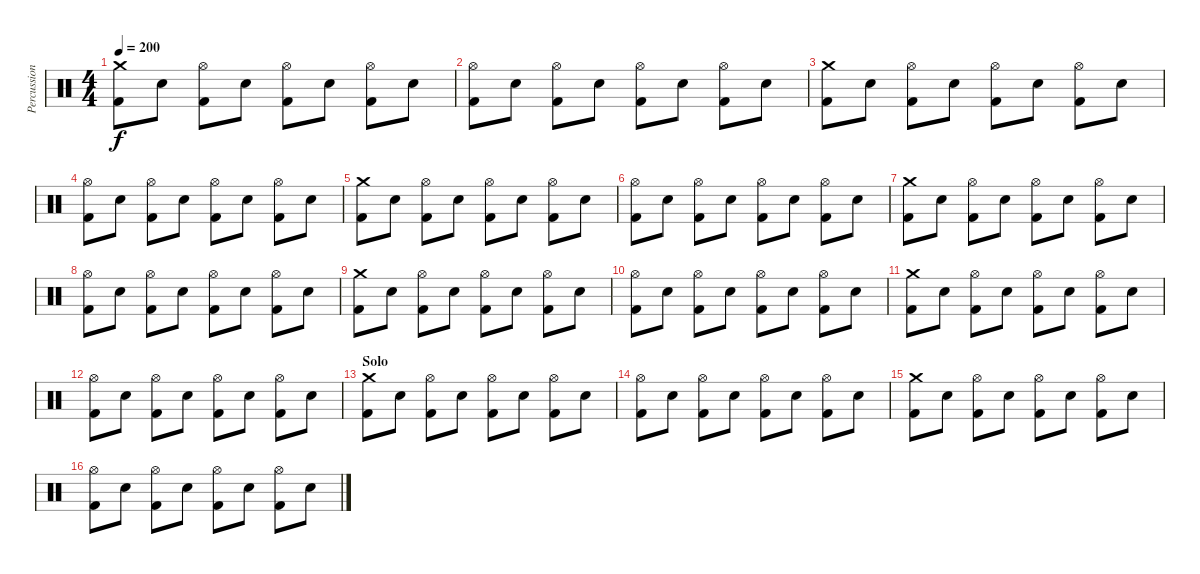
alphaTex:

\track ("Percussion" "Percussion") {instrument percussion}
\staff {score}
\articulation defaults
\ts (4 4)
\tempo 200
\clef neutral
\ks c
("Crash medium (hit)" "Kick (hit) 2").8{dy f} "Snare (hit) 2".8 ("Hi-Hat (open)" "Kick (hit) 2").8 "Snare (hit) 2".8 ("Hi-Hat (open)" "Kick (hit) 2").8 "Snare (hit) 2".8 ("Hi-Hat (open)" "Kick (hit) 2").8 "Snare (hit) 2".8 |
("Hi-Hat (open)" "Kick (hit) 2").8 "Snare (hit) 2".8 ("Hi-Hat (open)" "Kick (hit) 2").8 "Snare (hit) 2".8 ("Hi-Hat (open)" "Kick (hit) 2").8 "Snare (hit) 2".8 ("Hi-Hat (open)" "Kick (hit) 2").8 "Snare (hit) 2".8 |
("Crash medium (hit)" "Kick (hit) 2").8 "Snare (hit) 2".8 ("Hi-Hat (open)" "Kick (hit) 2").8 "Snare (hit) 2".8 ("Hi-Hat (open)" "Kick (hit) 2").8 "Snare (hit) 2".8 ("Hi-Hat (open)" "Kick (hit) 2").8 "Snare (hit) 2".8 |
("Hi-Hat (open)" "Kick (hit) 2").8 "Snare (hit) 2".8 ("Hi-Hat (open)" "Kick (hit) 2").8 "Snare (hit) 2".8 ("Hi-Hat (open)" "Kick (hit) 2").8 "Snare (hit) 2".8 ("Hi-Hat (open)" "Kick (hit) 2").8 "Snare (hit) 2".8 |
("Crash medium (hit)" "Kick (hit) 2").8 "Snare (hit) 2".8 ("Hi-Hat (open)" "Kick (hit) 2").8 "Snare (hit) 2".8 ("Hi-Hat (open)" "Kick (hit) 2").8 "Snare (hit) 2".8 ("Hi-Hat (open)" "Kick (hit) 2").8 "Snare (hit) 2".8 |
("Hi-Hat (open)" "Kick (hit) 2").8 "Snare (hit) 2".8 ("Hi-Hat (open)" "Kick (hit) 2").8 "Snare (hit) 2".8 ("Hi-Hat (open)" "Kick (hit) 2").8 "Snare (hit) 2".8 ("Hi-Hat (open)" "Kick (hit) 2").8 "Snare (hit) 2".8 |
("Crash medium (hit)" "Kick (hit) 2").8 "Snare (hit) 2".8 ("Hi-Hat (open)" "Kick (hit) 2").8 "Snare (hit) 2".8 ("Hi-Hat (open)" "Kick (hit) 2").8 "Snare (hit) 2".8 ("Hi-Hat (open)" "Kick (hit) 2").8 "Snare (hit) 2".8 |
("Hi-Hat (open)" "Kick (hit) 2").8 "Snare (hit) 2".8 ("Hi-Hat (open)" "Kick (hit) 2").8 "Snare (hit) 2".8 ("Hi-Hat (open)" "Kick (hit) 2").8 "Snare (hit) 2".8 ("Hi-Hat (open)" "Kick (hit) 2").8 "Snare (hit) 2".8 |
("Crash medium (hit)" "Kick (hit) 2").8 "Snare (hit) 2".8 ("Hi-Hat (open)" "Kick (hit) 2").8 "Snare (hit) 2".8 ("Hi-Hat (open)" "Kick (hit) 2").8 "Snare (hit) 2".8 ("Hi-Hat (open)" "Kick (hit) 2").8 "Snare (hit) 2".8 |
("Hi-Hat (open)" "Kick (hit) 2").8 "Snare (hit) 2".8 ("Hi-Hat (open)" "Kick (hit) 2").8 "Snare (hit) 2".8 ("Hi-Hat (open)" "Kick (hit) 2").8 "Snare (hit) 2".8 ("Hi-Hat (open)" "Kick (hit) 2").8 "Snare (hit) 2".8 |
("Crash medium (hit)" "Kick (hit) 2").8 "Snare (hit) 2".8 ("Hi-Hat (open)" "Kick (hit) 2").8 "Snare (hit) 2".8 ("Hi-Hat (open)" "Kick (hit) 2").8 "Snare (hit) 2".8 ("Hi-Hat (open)" "Kick (hit) 2").8 "Snare (hit) 2".8 |
("Hi-Hat (open)" "Kick (hit) 2").8 "Snare (hit) 2".8 ("Hi-Hat (open)" "Kick (hit) 2").8 "Snare (hit) 2".8 ("Hi-Hat (open)" "Kick (hit) 2").8 "Snare (hit) 2".8 ("Hi-Hat (open)" "Kick (hit) 2").8 "Snare (hit) 2".8 |
\section ("" "Solo")
("Crash medium (hit)" "Kick (hit) 2").8 "Snare (hit) 2".8 ("Hi-Hat (open)" "Kick (hit) 2").8 "Snare (hit) 2".8 ("Hi-Hat (open)" "Kick (hit) 2").8 "Snare (hit) 2".8 ("Hi-Hat (open)" "Kick (hit) 2").8 "Snare (hit) 2".8 |
("Hi-Hat (open)" "Kick (hit) 2").8 "Snare (hit) 2".8 ("Hi-Hat (open)" "Kick (hit) 2").8 "Snare (hit) 2".8 ("Hi-Hat (open)" "Kick (hit) 2").8 "Snare (hit) 2".8 ("Hi-Hat (open)" "Kick (hit) 2").8 "Snare (hit) 2".8 |
("Crash medium (hit)" "Kick (hit) 2").8 "Snare (hit) 2".8 ("Hi-Hat (open)" "Kick (hit) 2").8 "Snare (hit) 2".8 ("Hi-Hat (open)" "Kick (hit) 2").8 "Snare (hit) 2".8 ("Hi-Hat (open)" "Kick (hit) 2").8 "Snare (hit) 2".8 |
("Hi-Hat (open)" "Kick (hit) 2").8 "Snare (hit) 2".8 ("Hi-Hat (open)" "Kick (hit) 2").8 "Snare (hit) 2".8 ("Hi-Hat (open)" "Kick (hit) 2").8 "Snare (hit) 2".8 ("Hi-Hat (open)" "Kick (hit) 2").8 "Snare (hit) 2".8
